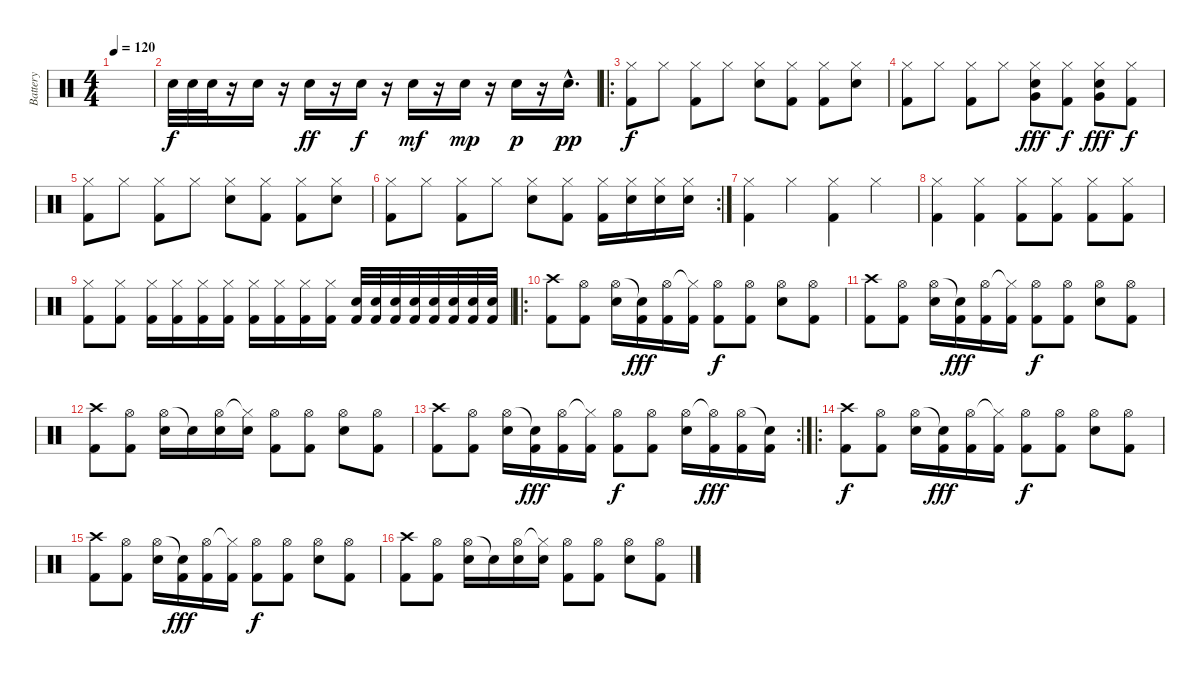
\track ("Battery" "Battery") {instrument percussion}
\staff {score}
\articulation defaults
\ts (4 4)
\tempo 120
\clef neutral
\ks c
|
"Electric Snare (hit)".32 "Electric Snare (hit)".32 "Electric Snare (hit)".32 r.16 "Electric Snare (hit)".16 r.16 "Electric Snare (hit)".16{dy ff} r.16 "Electric Snare (hit)".16{dy f} r.16 "Electric Snare (hit)".16{dy mf} r.16 "Electric Snare (hit)".16{dy mp} r.16 "Electric Snare (hit)".16{dy p} r.16 "Electric Snare (hit)"{hac}.16{d dy pp} |
\ro
("Hi-Hat (closed)" "Kick (hit) 2").8{dy f} "Hi-Hat (closed)".8 ("Hi-Hat (closed)" "Kick (hit) 2").8 "Hi-Hat (closed)".8 ("Hi-Hat (closed)" "Electric Snare (hit)").8 ("Hi-Hat (closed)" "Kick (hit) 2").8 ("Hi-Hat (closed)" "Kick (hit) 2").8 ("Hi-Hat (closed)" "Electric Snare (hit)").8 |
("Hi-Hat (closed)" "Kick (hit) 2").8 "Hi-Hat (closed)".8 ("Hi-Hat (closed)" "Kick (hit) 2").8 "Hi-Hat (closed)".8 ("Hi-Hat (closed)" "Very Low Tom (hit)" "Electric Snare (hit)").8{dy fff} ("Hi-Hat (closed)" "Kick (hit) 2").8{dy f} ("Hi-Hat (closed)" "Very Low Tom (hit)" "Electric Snare (hit)").8{dy fff} ("Hi-Hat (closed)" "Kick (hit) 2").8{dy f} |
("Hi-Hat (closed)" "Kick (hit) 2").8 "Hi-Hat (closed)".8 ("Hi-Hat (closed)" "Kick (hit) 2").8 "Hi-Hat (closed)".8 ("Hi-Hat (closed)" "Electric Snare (hit)").8 ("Hi-Hat (closed)" "Kick (hit) 2").8 ("Hi-Hat (closed)" "Kick (hit) 2").8 ("Hi-Hat (closed)" "Electric Snare (hit)").8 |
\rc 2
("Hi-Hat (closed)" "Kick (hit) 2").8 "Hi-Hat (closed)".8 ("Hi-Hat (closed)" "Kick (hit) 2").8 "Hi-Hat (closed)".8 ("Hi-Hat (closed)" "Electric Snare (hit)").8 ("Hi-Hat (closed)" "Kick (hit) 2").8 ("Hi-Hat (closed)" "Kick (hit) 2").16 ("Hi-Hat (closed)" "Electric Snare (hit)").16 ("Hi-Hat (closed)" "Electric Snare (hit)").16 ("Hi-Hat (closed)" "Electric Snare (hit)").16 |
("Hi-Hat (closed)" "Kick (hit) 2").4 "Hi-Hat (closed)".4 ("Hi-Hat (closed)" "Kick (hit) 2").4 "Hi-Hat (closed)".4 |
("Hi-Hat (closed)" "Kick (hit) 2").4 ("Hi-Hat (closed)" "Kick (hit) 2").4 ("Hi-Hat (closed)" "Kick (hit) 2").8 ("Hi-Hat (closed)" "Kick (hit) 2").8 ("Hi-Hat (closed)" "Kick (hit) 2").8 ("Hi-Hat (closed)" "Kick (hit) 2").8 |
("Hi-Hat (closed)" "Kick (hit) 2").8 ("Hi-Hat (closed)" "Kick (hit) 2").8 ("Hi-Hat (closed)" "Kick (hit) 2").16 ("Hi-Hat (closed)" "Kick (hit) 2").16 ("Hi-Hat (closed)" "Kick (hit) 2").16 ("Hi-Hat (closed)" "Kick (hit) 2").16 ("Hi-Hat (closed)" "Kick (hit) 2").16 ("Hi-Hat (closed)" "Kick (hit) 2").16 ("Hi-Hat (closed)" "Kick (hit) 2").16 ("Hi-Hat (closed)" "Kick (hit) 2").16 ("Electric Snare (hit)" "Kick (hit) 2").32 ("Electric Snare (hit)" "Kick (hit) 2").32 ("Electric Snare (hit)" "Kick (hit) 2").32 ("Electric Snare (hit)" "Kick (hit) 2").32 ("Electric Snare (hit)" "Kick (hit) 2").32 ("Electric Snare (hit)" "Kick (hit) 2").32 ("Electric Snare (hit)" "Kick (hit) 2").32 ("Electric Snare (hit)" "Kick (hit) 2").32 |
\ro
("Crash high (hit)" "Kick (hit) 2").8 ("Hi-Hat (open)" "Kick (hit) 2").8 ("Hi-Hat (open)" "Electric Snare (hit)").16 ("Snare (hit)"{t} "Kick (hit) 2").16{dy fff} ("Hi-Hat (open)" "Kick (hit) 2").16 ("Hi-Hat (closed)"{t} "Kick (hit) 2").16 ("Hi-Hat (open)" "Kick (hit) 2").8{dy f} ("Hi-Hat (open)" "Kick (hit) 2").8 ("Hi-Hat (open)" "Electric Snare (hit)").8 ("Hi-Hat (open)" "Kick (hit) 2").8 |
("Crash high (hit)" "Kick (hit) 2").8 ("Hi-Hat (open)" "Kick (hit) 2").8 ("Hi-Hat (open)" "Electric Snare (hit)").16 ("Snare (hit)"{t} "Kick (hit) 2").16{dy fff} ("Hi-Hat (open)" "Kick (hit) 2").16 ("Hi-Hat (closed)"{t} "Kick (hit) 2").16 ("Hi-Hat (open)" "Kick (hit) 2").8{dy f} ("Hi-Hat (open)" "Kick (hit) 2").8 ("Hi-Hat (open)" "Electric Snare (hit)").8 ("Hi-Hat (open)" "Kick (hit) 2").8 |
("Crash high (hit)" "Kick (hit) 2").8 ("Hi-Hat (open)" "Kick (hit) 2").8 ("Hi-Hat (open)" "Electric Snare (hit)").16 "Snare (hit)"{t}.16 ("Hi-Hat (open)" "Electric Snare (hit)").16 ("Hi-Hat (closed)"{t} "Electric Snare (hit)").16 ("Hi-Hat (open)" "Kick (hit) 2").8 ("Hi-Hat (open)" "Kick (hit) 2").8 ("Hi-Hat (open)" "Electric Snare (hit)").8 ("Hi-Hat (open)" "Kick (hit) 2").8 |
\rc 2
("Crash high (hit)" "Kick (hit) 2").8 ("Hi-Hat (open)" "Kick (hit) 2").8 ("Hi-Hat (open)" "Electric Snare (hit)").16 ("Snare (hit)"{t} "Kick (hit) 2").16{dy fff} ("Hi-Hat (open)" "Kick (hit) 2").16 ("Hi-Hat (closed)"{t} "Kick (hit) 2").16 ("Hi-Hat (open)" "Kick (hit) 2").8{dy f} ("Hi-Hat (open)" "Kick (hit) 2").8 ("Hi-Hat (open)" "Electric Snare (hit)").16 ("Hi-Hat (open)"{t} "Kick (hit) 2").16{dy fff} ("Hi-Hat (open)" "Kick (hit) 2").16 ("Snare (hit)"{t} "Kick (hit) 2").16 |
\ro
("Crash high (hit)" "Kick (hit) 2").8{dy f} ("Hi-Hat (open)" "Kick (hit) 2").8 ("Hi-Hat (open)" "Electric Snare (hit)").16 ("Snare (hit)"{t} "Kick (hit) 2").16{dy fff} ("Hi-Hat (open)" "Kick (hit) 2").16 ("Hi-Hat (closed)"{t} "Kick (hit) 2").16 ("Hi-Hat (open)" "Kick (hit) 2").8{dy f} ("Hi-Hat (open)" "Kick (hit) 2").8 ("Hi-Hat (open)" "Electric Snare (hit)").8 ("Hi-Hat (open)" "Kick (hit) 2").8 |
("Crash high (hit)" "Kick (hit) 2").8 ("Hi-Hat (open)" "Kick (hit) 2").8 ("Hi-Hat (open)" "Electric Snare (hit)").16 ("Snare (hit)"{t} "Kick (hit) 2").16{dy fff} ("Hi-Hat (open)" "Kick (hit) 2").16 ("Hi-Hat (closed)"{t} "Kick (hit) 2").16 ("Hi-Hat (open)" "Kick (hit) 2").8{dy f} ("Hi-Hat (open)" "Kick (hit) 2").8 ("Hi-Hat (open)" "Electric Snare (hit)").8 ("Hi-Hat (open)" "Kick (hit) 2").8 |
("Crash high (hit)" "Kick (hit) 2").8 ("Hi-Hat (open)" "Kick (hit) 2").8 ("Hi-Hat (open)" "Electric Snare (hit)").16 "Snare (hit)"{t}.16 ("Hi-Hat (open)" "Electric Snare (hit)").16 ("Hi-Hat (closed)"{t} "Electric Snare (hit)").16 ("Hi-Hat (open)" "Kick (hit) 2").8 ("Hi-Hat (open)" "Kick (hit) 2").8 ("Hi-Hat (open)" "Electric Snare (hit)").8 ("Hi-Hat (open)" "Kick (hit) 2").8
